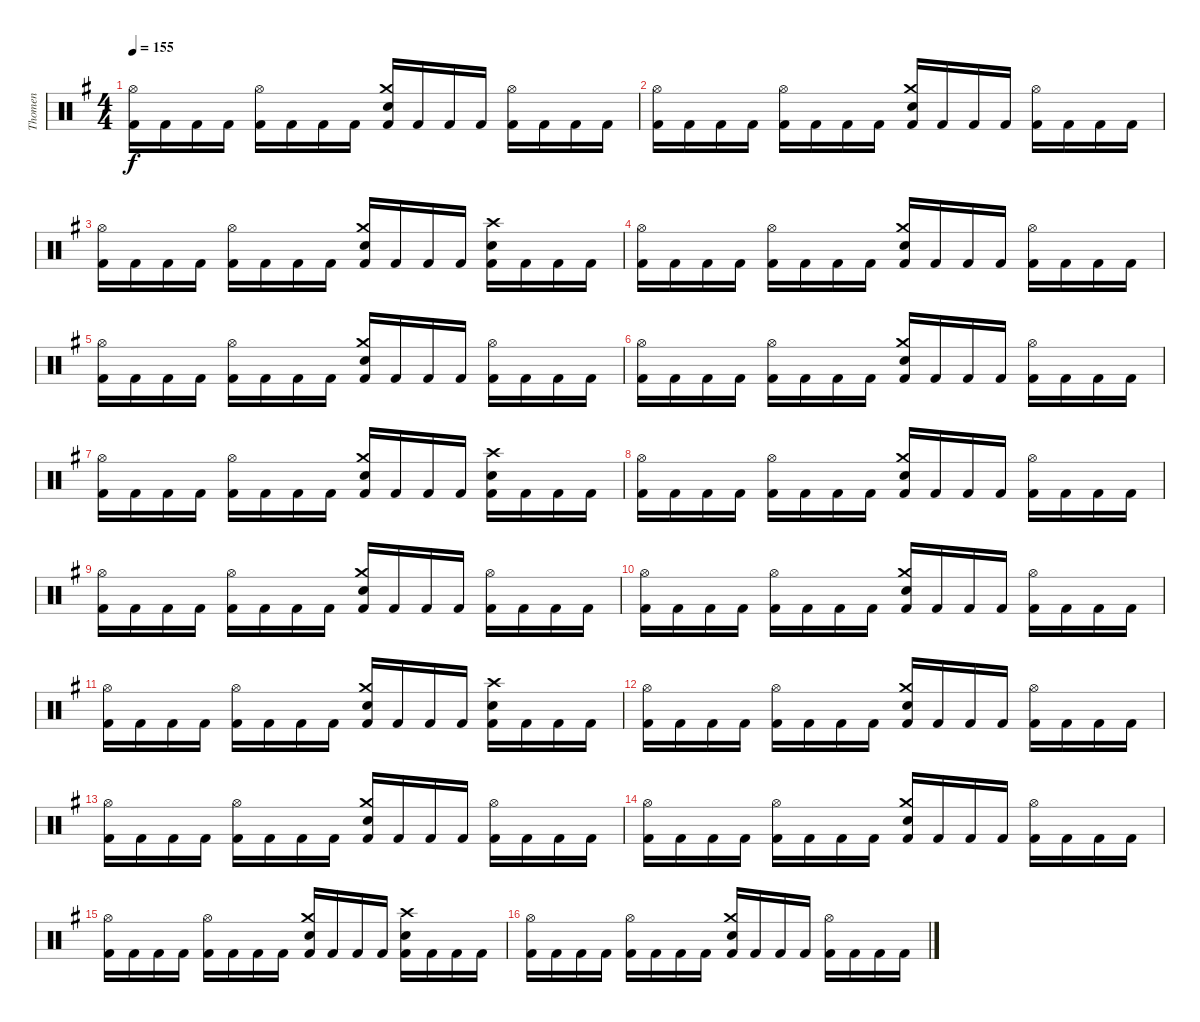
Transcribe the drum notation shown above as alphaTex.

\track ("Thomen" "Thomen") {instrument percussion}
\staff {score}
\articulation defaults
\ts (4 4)
\tempo 155
\clef neutral
\ks g
("Hi-Hat (open)" "Kick (hit) 2").16{dy f} "Kick (hit) 2".16 "Kick (hit) 2".16 "Kick (hit) 2".16 ("Hi-Hat (open)" "Kick (hit) 2").16 "Kick (hit) 2".16 "Kick (hit) 2".16 "Kick (hit) 2".16 ("Crash medium (hit)" "Electric Snare (hit)" "Kick (hit) 2").16 "Kick (hit) 2".16 "Kick (hit) 2".16 "Kick (hit) 2".16 ("Hi-Hat (open)" "Kick (hit) 2").16 "Kick (hit) 2".16 "Kick (hit) 2".16 "Kick (hit) 2".16 |
("Hi-Hat (open)" "Kick (hit) 2").16 "Kick (hit) 2".16 "Kick (hit) 2".16 "Kick (hit) 2".16 ("Hi-Hat (open)" "Kick (hit) 2").16 "Kick (hit) 2".16 "Kick (hit) 2".16 "Kick (hit) 2".16 ("Crash medium (hit)" "Electric Snare (hit)" "Kick (hit) 2").16 "Kick (hit) 2".16 "Kick (hit) 2".16 "Kick (hit) 2".16 ("Hi-Hat (open)" "Kick (hit) 2").16 "Kick (hit) 2".16 "Kick (hit) 2".16 "Kick (hit) 2".16 |
("Hi-Hat (open)" "Kick (hit) 2").16 "Kick (hit) 2".16 "Kick (hit) 2".16 "Kick (hit) 2".16 ("Hi-Hat (open)" "Kick (hit) 2").16 "Kick (hit) 2".16 "Kick (hit) 2".16 "Kick (hit) 2".16 ("Crash medium (hit)" "Electric Snare (hit)" "Kick (hit) 2").16 "Kick (hit) 2".16 "Kick (hit) 2".16 "Kick (hit) 2".16 ("Crash high (hit)" "Electric Snare (hit)" "Kick (hit) 2").16 "Kick (hit) 2".16 "Kick (hit) 2".16 "Kick (hit) 2".16 |
("Hi-Hat (open)" "Kick (hit) 2").16 "Kick (hit) 2".16 "Kick (hit) 2".16 "Kick (hit) 2".16 ("Hi-Hat (open)" "Kick (hit) 2").16 "Kick (hit) 2".16 "Kick (hit) 2".16 "Kick (hit) 2".16 ("Crash medium (hit)" "Electric Snare (hit)" "Kick (hit) 2").16 "Kick (hit) 2".16 "Kick (hit) 2".16 "Kick (hit) 2".16 ("Hi-Hat (open)" "Kick (hit) 2").16 "Kick (hit) 2".16 "Kick (hit) 2".16 "Kick (hit) 2".16 |
("Hi-Hat (open)" "Kick (hit) 2").16 "Kick (hit) 2".16 "Kick (hit) 2".16 "Kick (hit) 2".16 ("Hi-Hat (open)" "Kick (hit) 2").16 "Kick (hit) 2".16 "Kick (hit) 2".16 "Kick (hit) 2".16 ("Crash medium (hit)" "Electric Snare (hit)" "Kick (hit) 2").16 "Kick (hit) 2".16 "Kick (hit) 2".16 "Kick (hit) 2".16 ("Hi-Hat (open)" "Kick (hit) 2").16 "Kick (hit) 2".16 "Kick (hit) 2".16 "Kick (hit) 2".16 |
("Hi-Hat (open)" "Kick (hit) 2").16 "Kick (hit) 2".16 "Kick (hit) 2".16 "Kick (hit) 2".16 ("Hi-Hat (open)" "Kick (hit) 2").16 "Kick (hit) 2".16 "Kick (hit) 2".16 "Kick (hit) 2".16 ("Crash medium (hit)" "Electric Snare (hit)" "Kick (hit) 2").16 "Kick (hit) 2".16 "Kick (hit) 2".16 "Kick (hit) 2".16 ("Hi-Hat (open)" "Kick (hit) 2").16 "Kick (hit) 2".16 "Kick (hit) 2".16 "Kick (hit) 2".16 |
("Hi-Hat (open)" "Kick (hit) 2").16 "Kick (hit) 2".16 "Kick (hit) 2".16 "Kick (hit) 2".16 ("Hi-Hat (open)" "Kick (hit) 2").16 "Kick (hit) 2".16 "Kick (hit) 2".16 "Kick (hit) 2".16 ("Crash medium (hit)" "Electric Snare (hit)" "Kick (hit) 2").16 "Kick (hit) 2".16 "Kick (hit) 2".16 "Kick (hit) 2".16 ("Crash high (hit)" "Electric Snare (hit)" "Kick (hit) 2").16 "Kick (hit) 2".16 "Kick (hit) 2".16 "Kick (hit) 2".16 |
("Hi-Hat (open)" "Kick (hit) 2").16 "Kick (hit) 2".16 "Kick (hit) 2".16 "Kick (hit) 2".16 ("Hi-Hat (open)" "Kick (hit) 2").16 "Kick (hit) 2".16 "Kick (hit) 2".16 "Kick (hit) 2".16 ("Crash medium (hit)" "Electric Snare (hit)" "Kick (hit) 2").16 "Kick (hit) 2".16 "Kick (hit) 2".16 "Kick (hit) 2".16 ("Hi-Hat (open)" "Kick (hit) 2").16 "Kick (hit) 2".16 "Kick (hit) 2".16 "Kick (hit) 2".16 |
("Hi-Hat (open)" "Kick (hit) 2").16 "Kick (hit) 2".16 "Kick (hit) 2".16 "Kick (hit) 2".16 ("Hi-Hat (open)" "Kick (hit) 2").16 "Kick (hit) 2".16 "Kick (hit) 2".16 "Kick (hit) 2".16 ("Crash medium (hit)" "Electric Snare (hit)" "Kick (hit) 2").16 "Kick (hit) 2".16 "Kick (hit) 2".16 "Kick (hit) 2".16 ("Hi-Hat (open)" "Kick (hit) 2").16 "Kick (hit) 2".16 "Kick (hit) 2".16 "Kick (hit) 2".16 |
("Hi-Hat (open)" "Kick (hit) 2").16 "Kick (hit) 2".16 "Kick (hit) 2".16 "Kick (hit) 2".16 ("Hi-Hat (open)" "Kick (hit) 2").16 "Kick (hit) 2".16 "Kick (hit) 2".16 "Kick (hit) 2".16 ("Crash medium (hit)" "Electric Snare (hit)" "Kick (hit) 2").16 "Kick (hit) 2".16 "Kick (hit) 2".16 "Kick (hit) 2".16 ("Hi-Hat (open)" "Kick (hit) 2").16 "Kick (hit) 2".16 "Kick (hit) 2".16 "Kick (hit) 2".16 |
("Hi-Hat (open)" "Kick (hit) 2").16 "Kick (hit) 2".16 "Kick (hit) 2".16 "Kick (hit) 2".16 ("Hi-Hat (open)" "Kick (hit) 2").16 "Kick (hit) 2".16 "Kick (hit) 2".16 "Kick (hit) 2".16 ("Crash medium (hit)" "Electric Snare (hit)" "Kick (hit) 2").16 "Kick (hit) 2".16 "Kick (hit) 2".16 "Kick (hit) 2".16 ("Crash high (hit)" "Electric Snare (hit)" "Kick (hit) 2").16 "Kick (hit) 2".16 "Kick (hit) 2".16 "Kick (hit) 2".16 |
("Hi-Hat (open)" "Kick (hit) 2").16 "Kick (hit) 2".16 "Kick (hit) 2".16 "Kick (hit) 2".16 ("Hi-Hat (open)" "Kick (hit) 2").16 "Kick (hit) 2".16 "Kick (hit) 2".16 "Kick (hit) 2".16 ("Crash medium (hit)" "Electric Snare (hit)" "Kick (hit) 2").16 "Kick (hit) 2".16 "Kick (hit) 2".16 "Kick (hit) 2".16 ("Hi-Hat (open)" "Kick (hit) 2").16 "Kick (hit) 2".16 "Kick (hit) 2".16 "Kick (hit) 2".16 |
("Hi-Hat (open)" "Kick (hit) 2").16 "Kick (hit) 2".16 "Kick (hit) 2".16 "Kick (hit) 2".16 ("Hi-Hat (open)" "Kick (hit) 2").16 "Kick (hit) 2".16 "Kick (hit) 2".16 "Kick (hit) 2".16 ("Crash medium (hit)" "Electric Snare (hit)" "Kick (hit) 2").16 "Kick (hit) 2".16 "Kick (hit) 2".16 "Kick (hit) 2".16 ("Hi-Hat (open)" "Kick (hit) 2").16 "Kick (hit) 2".16 "Kick (hit) 2".16 "Kick (hit) 2".16 |
("Hi-Hat (open)" "Kick (hit) 2").16 "Kick (hit) 2".16 "Kick (hit) 2".16 "Kick (hit) 2".16 ("Hi-Hat (open)" "Kick (hit) 2").16 "Kick (hit) 2".16 "Kick (hit) 2".16 "Kick (hit) 2".16 ("Crash medium (hit)" "Electric Snare (hit)" "Kick (hit) 2").16 "Kick (hit) 2".16 "Kick (hit) 2".16 "Kick (hit) 2".16 ("Hi-Hat (open)" "Kick (hit) 2").16 "Kick (hit) 2".16 "Kick (hit) 2".16 "Kick (hit) 2".16 |
("Hi-Hat (open)" "Kick (hit) 2").16 "Kick (hit) 2".16 "Kick (hit) 2".16 "Kick (hit) 2".16 ("Hi-Hat (open)" "Kick (hit) 2").16 "Kick (hit) 2".16 "Kick (hit) 2".16 "Kick (hit) 2".16 ("Crash medium (hit)" "Electric Snare (hit)" "Kick (hit) 2").16 "Kick (hit) 2".16 "Kick (hit) 2".16 "Kick (hit) 2".16 ("Crash high (hit)" "Electric Snare (hit)" "Kick (hit) 2").16 "Kick (hit) 2".16 "Kick (hit) 2".16 "Kick (hit) 2".16 |
("Hi-Hat (open)" "Kick (hit) 2").16 "Kick (hit) 2".16 "Kick (hit) 2".16 "Kick (hit) 2".16 ("Hi-Hat (open)" "Kick (hit) 2").16 "Kick (hit) 2".16 "Kick (hit) 2".16 "Kick (hit) 2".16 ("Crash medium (hit)" "Electric Snare (hit)" "Kick (hit) 2").16 "Kick (hit) 2".16 "Kick (hit) 2".16 "Kick (hit) 2".16 ("Hi-Hat (open)" "Kick (hit) 2").16 "Kick (hit) 2".16 "Kick (hit) 2".16 "Kick (hit) 2".16
